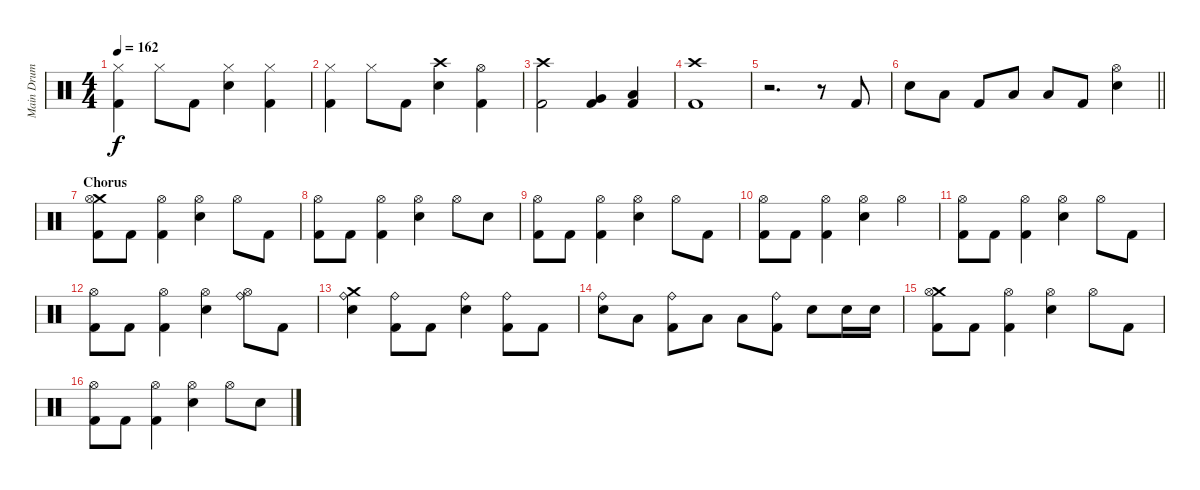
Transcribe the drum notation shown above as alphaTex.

\track ("Main Drum Track" "Main Drum ") {instrument percussion}
\staff {score}
\articulation defaults
\ts (4 4)
\tempo 162
\clef neutral
\ks c
("Hi-Hat (closed)" "Kick (hit) 2").4{dy f} "Hi-Hat (closed)".8 "Kick (hit) 2".8 ("Hi-Hat (closed)" "Electric Snare (hit)").4 ("Hi-Hat (closed)" "Kick (hit) 2").4 |
("Hi-Hat (closed)" "Kick (hit) 2").4 "Hi-Hat (closed)".8 "Kick (hit) 2".8 ("Crash high (hit)" "Electric Snare (hit)").4 ("Hi-Hat (open)" "Kick (hit) 2").4 |
("Crash high (hit)" "Kick (hit) 2").2 ("Very Low Tom (hit)" "Kick (hit) 2").4 ("Low Floor Tom (hit)" "Kick (hit) 2").4 |
("Crash high (hit)" "Kick (hit) 2").1 |
r.2{d} r.8 "Kick (hit) 2".8 |
\barLineRight lightlight "Electric Snare (hit)".8 "Low Floor Tom (hit)".8 "Kick (hit) 2".8 "Low Tom (hit)".8 "Low Floor Tom (hit)".8 "Kick (hit) 2".8
("Hi-Hat (open)" "Electric Snare (hit)").4 |
\section ("" "Chorus")
("Crash medium (hit)" "Hi-Hat (open)" "Kick (hit) 2").8 "Kick (hit) 2".8 ("Hi-Hat (open)" "Kick (hit) 2").4 ("Hi-Hat (open)" "Electric Snare (hit)").4 "Hi-Hat (open)".8 "Kick (hit) 2".8 |
("Hi-Hat (open)" "Kick (hit) 2").8 "Kick (hit) 2".8 ("Hi-Hat (open)" "Kick (hit) 2").4 ("Hi-Hat (open)" "Electric Snare (hit)").4 "Hi-Hat (open)".8 "Electric Snare (hit)".8 |
("Hi-Hat (open)" "Kick (hit) 2").8 "Kick (hit) 2".8 ("Hi-Hat (open)" "Kick (hit) 2").4 ("Hi-Hat (open)" "Electric Snare (hit)").4 "Hi-Hat (open)".8 "Kick (hit) 2".8 |
("Hi-Hat (open)" "Kick (hit) 2").8 "Kick (hit) 2".8 ("Hi-Hat (open)" "Kick (hit) 2").4 ("Hi-Hat (open)" "Electric Snare (hit)").4 "Hi-Hat (open)".4 |
("Hi-Hat (open)" "Kick (hit) 2").8 "Kick (hit) 2".8 ("Hi-Hat (open)" "Kick (hit) 2").4 ("Hi-Hat (open)" "Electric Snare (hit)").4 "Hi-Hat (open)".8 "Kick (hit) 2".8 |
("Hi-Hat (open)" "Kick (hit) 2").8 "Kick (hit) 2".8 ("Hi-Hat (open)" "Kick (hit) 2").4 ("Hi-Hat (open)" "Electric Snare (hit)").4 ("Ride (bell)" "Hi-Hat (open)").8 "Kick (hit) 2".8 |
("Ride (bell)" "Crash medium (hit)" "Electric Snare (hit)").4 ("Ride (bell)" "Kick (hit) 2").8 "Kick (hit) 2".8 ("Ride (bell)" "Electric Snare (hit)").4 ("Ride (bell)" "Kick (hit) 2").8 "Kick (hit) 2".8 |
("Ride (bell)" "Electric Snare (hit)").8 "Low Floor Tom (hit)".8 ("Ride (bell)" "Kick (hit) 2").8 "Low Tom (hit)".8 "Low Floor Tom (hit)".8 ("Ride (bell)" "Kick (hit) 2").8 "Electric Snare (hit)".8 "Electric Snare (hit)".16 "Electric Snare (hit)".16 |
("Crash medium (hit)" "Hi-Hat (open)" "Kick (hit) 2").8 "Kick (hit) 2".8 ("Hi-Hat (open)" "Kick (hit) 2").4 ("Hi-Hat (open)" "Electric Snare (hit)").4 "Hi-Hat (open)".8 "Kick (hit) 2".8 |
("Hi-Hat (open)" "Kick (hit) 2").8 "Kick (hit) 2".8 ("Hi-Hat (open)" "Kick (hit) 2").4 ("Hi-Hat (open)" "Electric Snare (hit)").4 "Hi-Hat (open)".8 "Electric Snare (hit)".8
